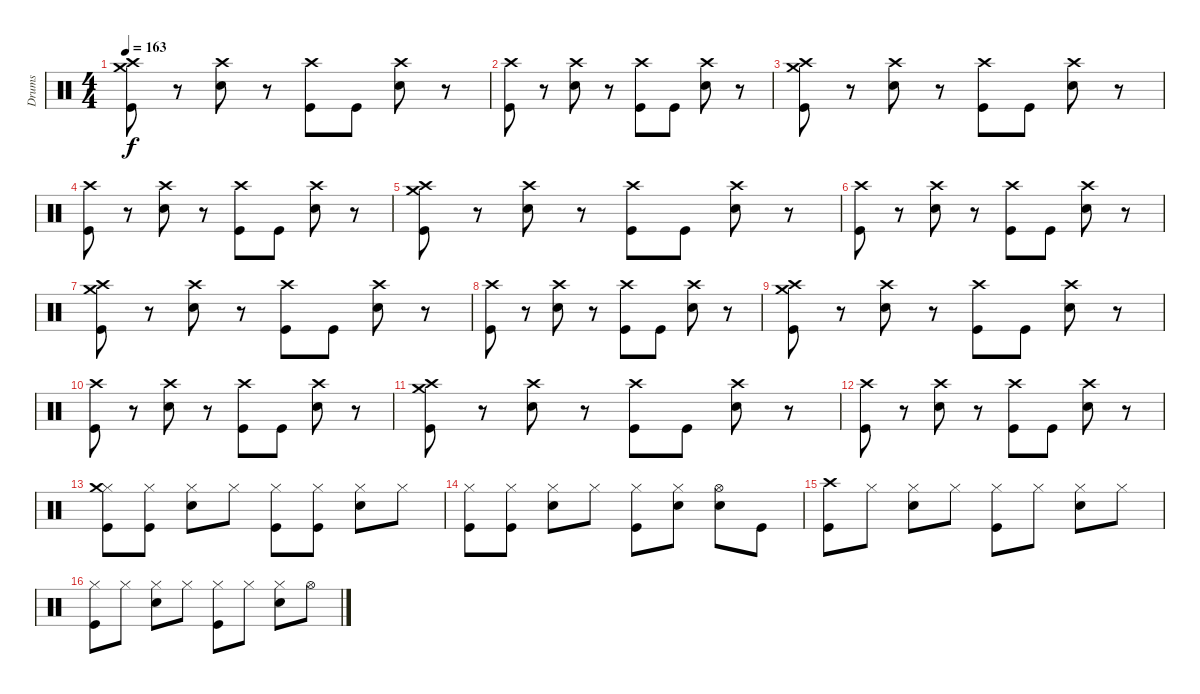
\track ("Drums" "Drums") {instrument percussion}
\staff {score}
\articulation defaults
\ts (4 4)
\tempo 163
\clef neutral
\ks c
("Crash high (hit)" "Crash medium (hit)" "Kick (hit)").8{dy f} r.8 ("Crash high (hit)" "Electric Snare (hit)").8 r.8 ("Crash high (hit)" "Kick (hit)").8 "Kick (hit)".8 ("Crash high (hit)" "Electric Snare (hit)").8 r.8 |
("Crash high (hit)" "Kick (hit)").8 r.8 ("Crash high (hit)" "Electric Snare (hit)").8 r.8 ("Crash high (hit)" "Kick (hit)").8 "Kick (hit)".8 ("Crash high (hit)" "Electric Snare (hit)").8 r.8 |
("Crash high (hit)" "Crash medium (hit)" "Kick (hit)").8 r.8 ("Crash high (hit)" "Electric Snare (hit)").8 r.8 ("Crash high (hit)" "Kick (hit)").8 "Kick (hit)".8 ("Crash high (hit)" "Electric Snare (hit)").8 r.8 |
("Crash high (hit)" "Kick (hit)").8 r.8 ("Crash high (hit)" "Electric Snare (hit)").8 r.8 ("Crash high (hit)" "Kick (hit)").8 "Kick (hit)".8 ("Crash high (hit)" "Electric Snare (hit)").8 r.8 |
("Crash high (hit)" "Crash medium (hit)" "Kick (hit)").8 r.8 ("Crash high (hit)" "Electric Snare (hit)").8 r.8 ("Crash high (hit)" "Kick (hit)").8 "Kick (hit)".8 ("Crash high (hit)" "Electric Snare (hit)").8 r.8 |
("Crash high (hit)" "Kick (hit)").8 r.8 ("Crash high (hit)" "Electric Snare (hit)").8 r.8 ("Crash high (hit)" "Kick (hit)").8 "Kick (hit)".8 ("Crash high (hit)" "Electric Snare (hit)").8 r.8 |
("Crash high (hit)" "Crash medium (hit)" "Kick (hit)").8 r.8 ("Crash high (hit)" "Electric Snare (hit)").8 r.8 ("Crash high (hit)" "Kick (hit)").8 "Kick (hit)".8 ("Crash high (hit)" "Electric Snare (hit)").8 r.8 |
("Crash high (hit)" "Kick (hit)").8 r.8 ("Crash high (hit)" "Electric Snare (hit)").8 r.8 ("Crash high (hit)" "Kick (hit)").8 "Kick (hit)".8 ("Crash high (hit)" "Electric Snare (hit)").8 r.8 |
("Crash high (hit)" "Crash medium (hit)" "Kick (hit)").8 r.8 ("Crash high (hit)" "Electric Snare (hit)").8 r.8 ("Crash high (hit)" "Kick (hit)").8 "Kick (hit)".8 ("Crash high (hit)" "Electric Snare (hit)").8 r.8 |
("Crash high (hit)" "Kick (hit)").8 r.8 ("Crash high (hit)" "Electric Snare (hit)").8 r.8 ("Crash high (hit)" "Kick (hit)").8 "Kick (hit)".8 ("Crash high (hit)" "Electric Snare (hit)").8 r.8 |
("Crash high (hit)" "Crash medium (hit)" "Kick (hit)").8 r.8 ("Crash high (hit)" "Electric Snare (hit)").8 r.8 ("Crash high (hit)" "Kick (hit)").8 "Kick (hit)".8 ("Crash high (hit)" "Electric Snare (hit)").8 r.8 |
("Crash high (hit)" "Kick (hit)").8 r.8 ("Crash high (hit)" "Electric Snare (hit)").8 r.8 ("Crash high (hit)" "Kick (hit)").8 "Kick (hit)".8 ("Crash high (hit)" "Electric Snare (hit)").8 r.8 |
("Hi-Hat (closed)" "Crash medium (hit)" "Kick (hit)").8 ("Hi-Hat (closed)" "Kick (hit)").8 ("Hi-Hat (closed)" "Electric Snare (hit)").8 "Hi-Hat (closed)".8 ("Hi-Hat (closed)" "Kick (hit)").8 ("Hi-Hat (closed)" "Kick (hit)").8 ("Hi-Hat (closed)" "Electric Snare (hit)").8 "Hi-Hat (closed)".8 |
("Hi-Hat (closed)" "Kick (hit)").8 ("Hi-Hat (closed)" "Kick (hit)").8 ("Hi-Hat (closed)" "Electric Snare (hit)").8 "Hi-Hat (closed)".8 ("Hi-Hat (closed)" "Kick (hit)").8 ("Hi-Hat (closed)" "Electric Snare (hit)").8 ("Hi-Hat (open)" "Electric Snare (hit)").8 "Kick (hit)".8 |
("Crash high (hit)" "Kick (hit)").8 "Hi-Hat (closed)".8 ("Hi-Hat (closed)" "Electric Snare (hit)").8 "Hi-Hat (closed)".8 ("Hi-Hat (closed)" "Kick (hit)").8 "Hi-Hat (closed)".8 ("Hi-Hat (closed)" "Electric Snare (hit)").8 "Hi-Hat (closed)".8 |
("Hi-Hat (closed)" "Kick (hit)").8 "Hi-Hat (closed)".8 ("Hi-Hat (closed)" "Electric Snare (hit)").8 "Hi-Hat (closed)".8 ("Hi-Hat (closed)" "Kick (hit)").8 "Hi-Hat (closed)".8 ("Hi-Hat (closed)" "Electric Snare (hit)").8 "Hi-Hat (open)".8
